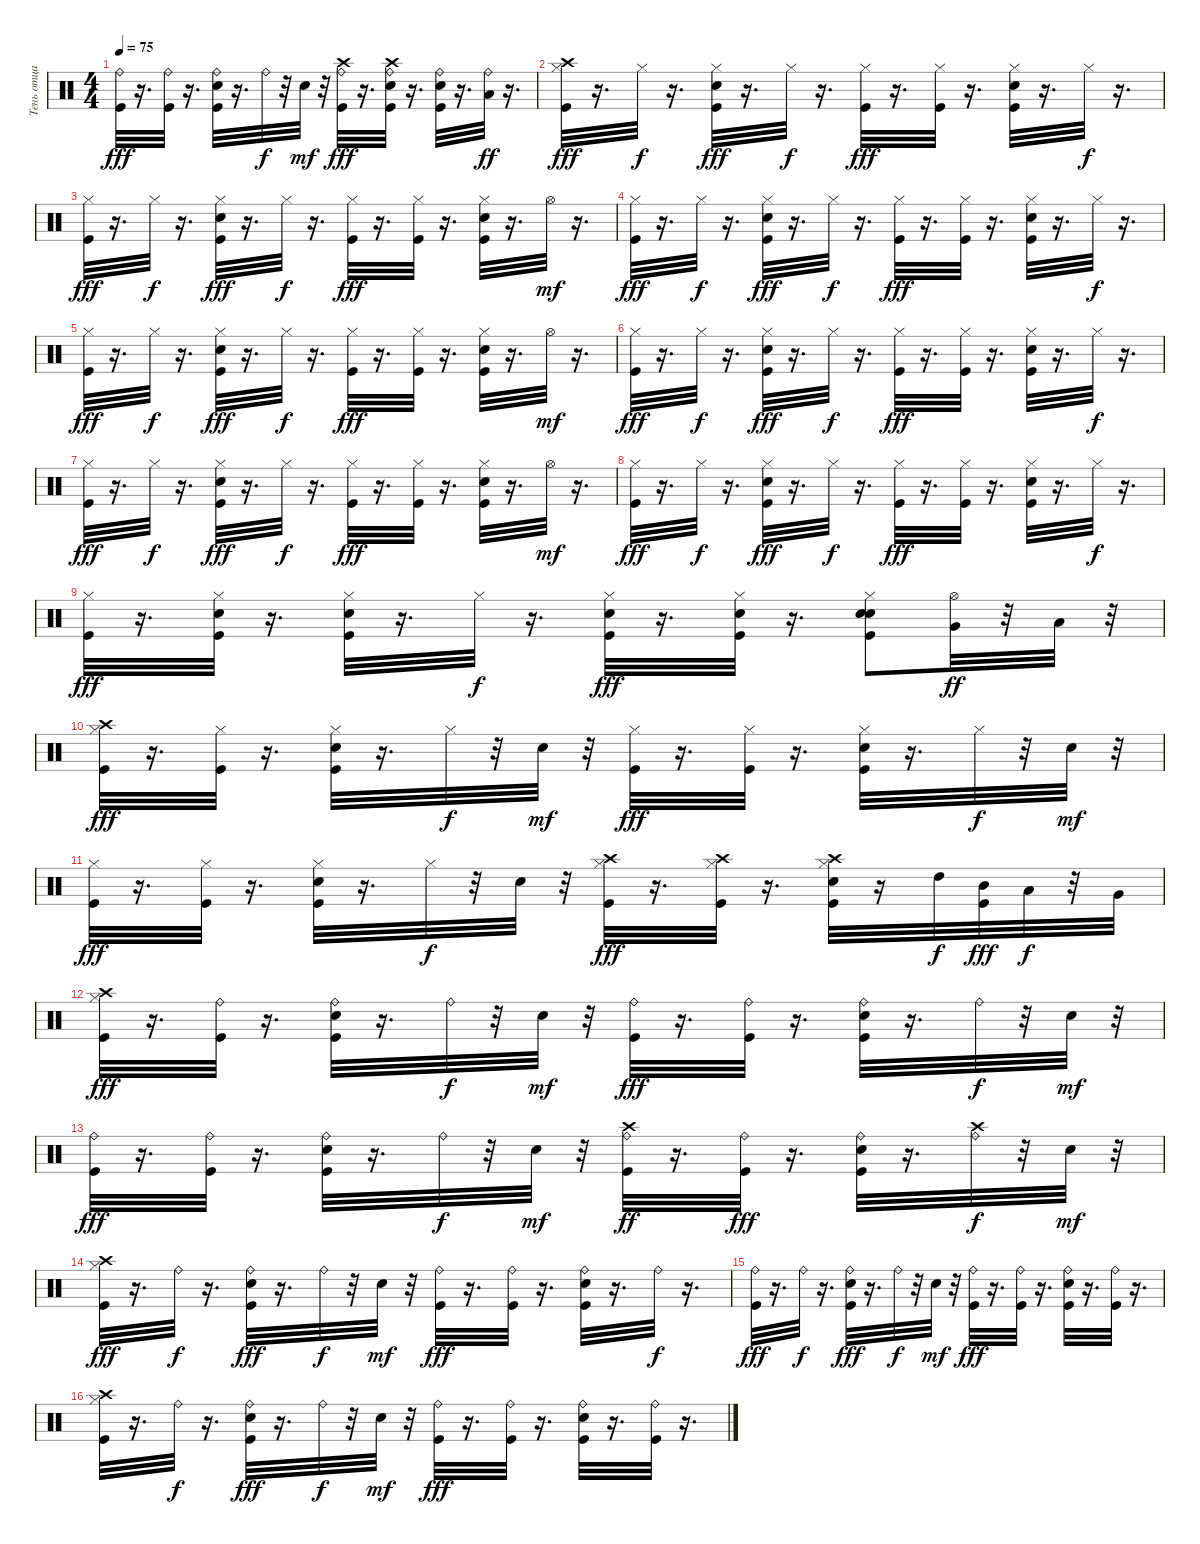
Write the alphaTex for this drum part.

\track ("Тень отца Гамлета" "Тень отца ") {instrument percussion}
\staff {score}
\articulation defaults
\ts (4 4)
\tempo 75
\clef neutral
\ks c
("Kick (hit)" "Ride (bell)").32{dy fff} r.16{d} ("Kick (hit)" "Ride (bell)").32 r.16{d} ("Snare (hit) 2" "Kick (hit)" "Ride (bell)").32 r.16{d} "Ride (bell)".32{dy f} r.32 "Snare (hit) 2".32{dy mf} r.32 ("Kick (hit)" "Ride (bell)" "Crash high (hit)").32{dy fff} r.16{d} ("Kick (hit)" "Snare (hit) 2" "Crash high (hit)" "Ride (bell)").32 r.16{d} ("Kick (hit)" "Snare (hit) 2" "Ride (bell)").32 r.16{d} ("Ride (bell)" "Low Floor Tom (hit)").32{dy ff} r.16{d} |
("Hi-Hat (closed)" "Crash high (hit)" "Kick (hit)").32{dy fff} r.16{d} "Hi-Hat (closed)".32{dy f} r.16{d} ("Hi-Hat (closed)" "Snare (hit) 2" "Kick (hit)").32{dy fff} r.16{d} "Hi-Hat (closed)".32{dy f} r.16{d} ("Hi-Hat (closed)" "Kick (hit)").32{dy fff} r.16{d} ("Hi-Hat (closed)" "Kick (hit)").32 r.16{d} ("Hi-Hat (closed)" "Snare (hit) 2" "Kick (hit)").32 r.16{d} "Hi-Hat (closed)".32{dy f} r.16{d} |
("Kick (hit)" "Hi-Hat (closed)").32{dy fff} r.16{d} "Hi-Hat (closed)".32{dy f} r.16{d} ("Snare (hit) 2" "Kick (hit)" "Hi-Hat (closed)").32{dy fff} r.16{d} "Hi-Hat (closed)".32{dy f} r.16{d} ("Kick (hit)" "Hi-Hat (closed)").32{dy fff} r.16{d} ("Kick (hit)" "Hi-Hat (closed)").32 r.16{d} ("Snare (hit) 2" "Kick (hit)" "Hi-Hat (closed)").32 r.16{d} "Hi-Hat (open)".32{dy mf} r.16{d} |
("Hi-Hat (closed)" "Kick (hit)").32{dy fff} r.16{d} "Hi-Hat (closed)".32{dy f} r.16{d} ("Hi-Hat (closed)" "Snare (hit) 2" "Kick (hit)").32{dy fff} r.16{d} "Hi-Hat (closed)".32{dy f} r.16{d} ("Hi-Hat (closed)" "Kick (hit)").32{dy fff} r.16{d} ("Hi-Hat (closed)" "Kick (hit)").32 r.16{d} ("Hi-Hat (closed)" "Snare (hit) 2" "Kick (hit)").32 r.16{d} "Hi-Hat (closed)".32{dy f} r.16{d} |
("Kick (hit)" "Hi-Hat (closed)").32{dy fff} r.16{d} "Hi-Hat (closed)".32{dy f} r.16{d} ("Snare (hit) 2" "Kick (hit)" "Hi-Hat (closed)").32{dy fff} r.16{d} "Hi-Hat (closed)".32{dy f} r.16{d} ("Kick (hit)" "Hi-Hat (closed)").32{dy fff} r.16{d} ("Kick (hit)" "Hi-Hat (closed)").32 r.16{d} ("Snare (hit) 2" "Kick (hit)" "Hi-Hat (closed)").32 r.16{d} "Hi-Hat (open)".32{dy mf} r.16{d} |
("Hi-Hat (closed)" "Kick (hit)").32{dy fff} r.16{d} "Hi-Hat (closed)".32{dy f} r.16{d} ("Hi-Hat (closed)" "Snare (hit) 2" "Kick (hit)").32{dy fff} r.16{d} "Hi-Hat (closed)".32{dy f} r.16{d} ("Hi-Hat (closed)" "Kick (hit)").32{dy fff} r.16{d} ("Hi-Hat (closed)" "Kick (hit)").32 r.16{d} ("Hi-Hat (closed)" "Snare (hit) 2" "Kick (hit)").32 r.16{d} "Hi-Hat (closed)".32{dy f} r.16{d} |
("Hi-Hat (closed)" "Kick (hit)").32{dy fff} r.16{d} "Hi-Hat (closed)".32{dy f} r.16{d} ("Hi-Hat (closed)" "Snare (hit) 2" "Kick (hit)").32{dy fff} r.16{d} "Hi-Hat (closed)".32{dy f} r.16{d} ("Hi-Hat (closed)" "Kick (hit)").32{dy fff} r.16{d} ("Hi-Hat (closed)" "Kick (hit)").32 r.16{d} ("Hi-Hat (closed)" "Snare (hit) 2" "Kick (hit)").32 r.16{d} "Hi-Hat (open)".32{dy mf} r.16{d} |
("Hi-Hat (closed)" "Kick (hit)").32{dy fff} r.16{d} "Hi-Hat (closed)".32{dy f} r.16{d} ("Hi-Hat (closed)" "Snare (hit) 2" "Kick (hit)").32{dy fff} r.16{d} "Hi-Hat (closed)".32{dy f} r.16{d} ("Hi-Hat (closed)" "Kick (hit)").32{dy fff} r.16{d} ("Hi-Hat (closed)" "Kick (hit)").32 r.16{d} ("Hi-Hat (closed)" "Snare (hit) 2" "Kick (hit)").32 r.16{d} "Hi-Hat (closed)".32{dy f} r.16{d} |
("Kick (hit)" "Hi-Hat (closed)").32{dy fff} r.16{d} ("Hi-Hat (closed)" "Snare (hit) 2" "Kick (hit)").32 r.16{d} ("Snare (hit) 2" "Kick (hit)" "Hi-Hat (closed)").32 r.16{d} "Hi-Hat (closed)".32{dy f} r.16{d} ("Kick (hit)" "Snare (hit) 2" "Hi-Hat (closed)").32{dy fff} r.16{d} ("Kick (hit)" "Snare (hit) 2" "Hi-Hat (closed)").32 r.16{d} ("Snare (hit) 2" "Kick (hit)" "Snare (hit) 2" "Hi-Hat (closed)").8 ("Hi-Hat (open)" "Very Low Tom (hit)").32{dy ff} r.32 "Low Floor Tom (hit)".32 r.32 |
("Hi-Hat (closed)" "Crash high (hit)" "Kick (hit)").32{dy fff} r.16{d} ("Kick (hit)" "Hi-Hat (closed)").32 r.16{d} ("Hi-Hat (closed)" "Snare (hit) 2" "Kick (hit)").32 r.16{d} "Hi-Hat (closed)".32{dy f} r.32 "Snare (hit) 2".32{dy mf} r.32 ("Hi-Hat (closed)" "Kick (hit)").32{dy fff} r.16{d} ("Kick (hit)" "Hi-Hat (closed)").32 r.16{d} ("Hi-Hat (closed)" "Snare (hit) 2" "Kick (hit)").32 r.16{d} "Hi-Hat (closed)".32{dy f} r.32 "Snare (hit) 2".32{dy mf} r.32 |
("Hi-Hat (closed)" "Kick (hit)").32{dy fff} r.16{d} ("Kick (hit)" "Hi-Hat (closed)").32 r.16{d} ("Hi-Hat (closed)" "Snare (hit) 2" "Kick (hit)").32 r.16{d} "Hi-Hat (closed)".32{dy f} r.32 "Snare (hit) 2".32 r.32 ("Crash high (hit)" "Hi-Hat (closed)" "Kick (hit)").32{dy fff} r.16{d} ("Crash high (hit)" "Hi-Hat (closed)" "Kick (hit)").32 r.16{d} ("Crash high (hit)" "Hi-Hat (closed)" "Snare (hit) 2" "Kick (hit)").32 r.16 "High Tom (hit)".32{dy f} ("Kick (hit)" "Mid Tom (hit)").32{dy fff} "Low Tom (hit)".32{dy f} r.32 "Very Low Tom (hit)".32 |
("Hi-Hat (closed)" "Crash high (hit)" "Kick (hit)").32{dy fff} r.16{d} ("Ride (bell)" "Kick (hit)").32 r.16{d} ("Ride (bell)" "Snare (hit) 2" "Kick (hit)").32 r.16{d} "Ride (bell)".32{dy f} r.32 "Snare (hit) 2".32{dy mf} r.32 ("Ride (bell)" "Kick (hit)").32{dy fff} r.16{d} ("Ride (bell)" "Kick (hit)").32 r.16{d} ("Snare (hit) 2" "Kick (hit)" "Ride (bell)").32 r.16{d} "Ride (bell)".32{dy f} r.32 "Snare (hit) 2".32{dy mf} r.32 |
("Kick (hit)" "Ride (bell)").32{dy fff} r.16{d} ("Kick (hit)" "Ride (bell)").32 r.16{d} ("Snare (hit) 2" "Kick (hit)" "Ride (bell)").32 r.16{d} "Ride (bell)".32{dy f} r.32 "Snare (hit) 2".32{dy mf} r.32 ("Kick (hit)" "Ride (bell)" "Crash high (hit)").32{dy ff} r.16{d} ("Kick (hit)" "Ride (bell)").32{dy fff} r.16{d} ("Kick (hit)" "Snare (hit) 2" "Ride (bell)").32 r.16{d} ("Ride (bell)" "Crash high (hit)").32{dy f} r.32 "Snare (hit) 2".32{dy mf} r.32 |
("Crash high (hit)" "Kick (hit)" "Hi-Hat (closed)").32{dy fff} r.16{d} "Ride (bell)".32{dy f} r.16{d} ("Snare (hit) 2" "Kick (hit)" "Ride (bell)").32{dy fff} r.16{d} "Ride (bell)".32{dy f} r.32 "Snare (hit) 2".32{dy mf} r.32 ("Kick (hit)" "Ride (bell)").32{dy fff} r.16{d} ("Kick (hit)" "Ride (bell)").32 r.16{d} ("Snare (hit) 2" "Kick (hit)" "Ride (bell)").32 r.16{d} "Ride (bell)".32{dy f} r.16{d} |
("Kick (hit)" "Ride (bell)").32{dy fff} r.16{d} "Ride (bell)".32{dy f} r.16{d} ("Snare (hit) 2" "Kick (hit)" "Ride (bell)").32{dy fff} r.16{d} "Ride (bell)".32{dy f} r.32 "Snare (hit) 2".32{dy mf} r.32 ("Kick (hit)" "Ride (bell)").32{dy fff} r.16{d} ("Kick (hit)" "Ride (bell)").32 r.16{d} ("Kick (hit)" "Snare (hit) 2" "Ride (bell)").32 r.16{d} ("Ride (bell)" "Kick (hit)").32 r.16{d} |
("Hi-Hat (closed)" "Crash high (hit)" "Kick (hit)").32 r.16{d} "Ride (bell)".32{dy f} r.16{d} ("Snare (hit) 2" "Kick (hit)" "Ride (bell)").32{dy fff} r.16{d} "Ride (bell)".32{dy f} r.32 "Snare (hit) 2".32{dy mf} r.32 ("Ride (bell)" "Kick (hit)").32{dy fff} r.16{d} ("Kick (hit)" "Ride (bell)").32 r.16{d} ("Snare (hit) 2" "Kick (hit)" "Ride (bell)").32 r.16{d} ("Kick (hit)" "Ride (bell)").32 r.16{d}
